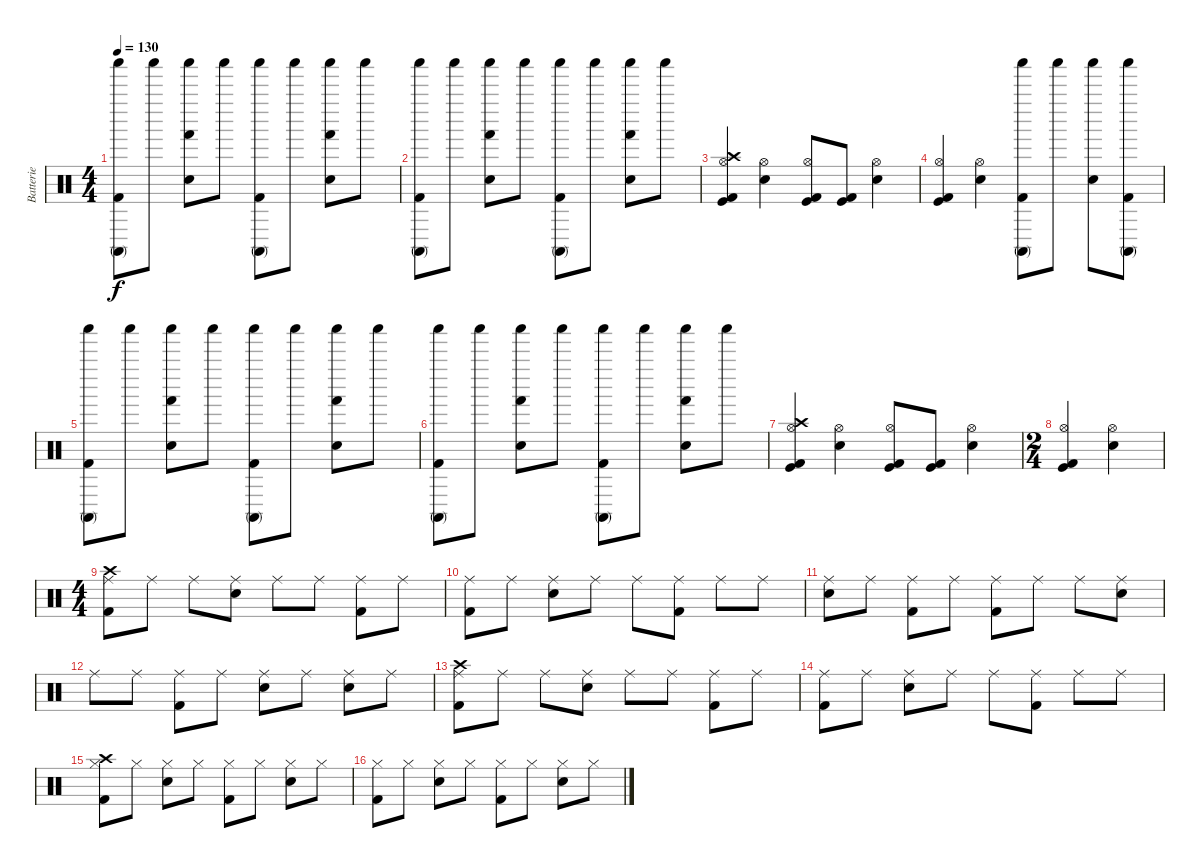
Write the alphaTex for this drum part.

\track ("Batterie" "Batterie") {instrument percussion}
\staff {score}
\articulation defaults
\ts (4 4)
\tempo 130
\clef neutral
\ks c
("Shaker (hit)" "Kick (hit) 2" "Conga high (mute)").8{dy f} "Shaker (hit)".8 ("Shaker (hit)" "Electric Snare (hit)" "Hand (hit)").8 "Shaker (hit)".8 ("Shaker (hit)" "Kick (hit) 2" "Conga high (mute)").8 "Shaker (hit)".8 ("Shaker (hit)" "Electric Snare (hit)" "Hand (hit)").8 "Shaker (hit)".8 |
("Shaker (hit)" "Kick (hit) 2" "Conga high (mute)").8 "Shaker (hit)".8 ("Shaker (hit)" "Electric Snare (hit)" "Hand (hit)").8 "Shaker (hit)".8 ("Shaker (hit)" "Kick (hit) 2" "Conga high (mute)").8 "Shaker (hit)".8 ("Shaker (hit)" "Electric Snare (hit)" "Hand (hit)").8 "Shaker (hit)".8 |
("Hi-Hat (open)" "Crash high (hit)" "Kick (hit) 2" "Kick (hit)").4 ("Hi-Hat (open)" "Electric Snare (hit)").4 ("Hi-Hat (open)" "Kick (hit)" "Kick (hit) 2").8 ("Kick (hit) 2" "Kick (hit)").8 ("Hi-Hat (open)" "Electric Snare (hit)").4 |
("Hi-Hat (open)" "Kick (hit) 2" "Kick (hit)").4 ("Hi-Hat (open)" "Electric Snare (hit)").4 ("Shaker (hit)" "Kick (hit) 2" "Conga high (mute)").8 "Shaker (hit)".8 ("Shaker (hit)" "Electric Snare (hit)").8 ("Shaker (hit)" "Kick (hit) 2" "Conga high (mute)").8 |
("Shaker (hit)" "Kick (hit) 2" "Conga high (mute)").8 "Shaker (hit)".8 ("Shaker (hit)" "Electric Snare (hit)" "Hand (hit)").8 "Shaker (hit)".8 ("Shaker (hit)" "Kick (hit) 2" "Conga high (mute)").8 "Shaker (hit)".8 ("Shaker (hit)" "Electric Snare (hit)" "Hand (hit)").8 "Shaker (hit)".8 |
("Shaker (hit)" "Kick (hit) 2" "Conga high (mute)").8 "Shaker (hit)".8 ("Shaker (hit)" "Electric Snare (hit)" "Hand (hit)").8 "Shaker (hit)".8 ("Shaker (hit)" "Kick (hit) 2" "Conga high (mute)").8 "Shaker (hit)".8 ("Shaker (hit)" "Electric Snare (hit)" "Hand (hit)").8 "Shaker (hit)".8 |
("Hi-Hat (open)" "Crash high (hit)" "Kick (hit) 2" "Kick (hit)").4 ("Hi-Hat (open)" "Electric Snare (hit)").4 ("Hi-Hat (open)" "Kick (hit)" "Kick (hit) 2").8 ("Kick (hit) 2" "Kick (hit)").8 ("Hi-Hat (open)" "Electric Snare (hit)").4 |
\ts (2 4)
("Hi-Hat (open)" "Kick (hit) 2" "Kick (hit)").4 ("Hi-Hat (open)" "Electric Snare (hit)").4 |
\ts (4 4)
("Ride (middle)" "Crash high (hit)" "Kick (hit) 2").8 "Ride (middle)".8 "Ride (middle)".8 ("Ride (middle)" "Electric Snare (hit)").8 "Ride (middle)".8 "Ride (middle)".8 ("Ride (middle)" "Kick (hit) 2").8 "Ride (middle)".8 |
("Ride (middle)" "Kick (hit) 2").8 "Ride (middle)".8 ("Ride (middle)" "Electric Snare (hit)").8 "Ride (middle)".8 "Ride (middle)".8 ("Ride (middle)" "Kick (hit) 2").8 "Ride (middle)".8 "Ride (middle)".8 |
("Ride (middle)" "Electric Snare (hit)").8 "Ride (middle)".8 ("Ride (middle)" "Kick (hit) 2").8 "Ride (middle)".8 ("Ride (middle)" "Kick (hit) 2").8 "Ride (middle)".8 "Ride (middle)".8 ("Ride (middle)" "Electric Snare (hit)").8 |
"Ride (middle)".8 "Ride (middle)".8 ("Ride (middle)" "Kick (hit) 2").8 "Ride (middle)".8 ("Ride (middle)" "Electric Snare (hit)").8 "Ride (middle)".8 ("Ride (middle)" "Electric Snare (hit)").8 "Ride (middle)".8 |
("Ride (middle)" "Crash high (hit)" "Kick (hit) 2").8 "Ride (middle)".8 "Ride (middle)".8 ("Ride (middle)" "Electric Snare (hit)").8 "Ride (middle)".8 "Ride (middle)".8 ("Ride (middle)" "Kick (hit) 2").8 "Ride (middle)".8 |
("Ride (middle)" "Kick (hit) 2").8 "Ride (middle)".8 ("Ride (middle)" "Electric Snare (hit)").8 "Ride (middle)".8 "Ride (middle)".8 ("Ride (middle)" "Kick (hit) 2").8 "Ride (middle)".8 "Ride (middle)".8 |
("Hi-Hat (closed)" "Kick (hit) 2" "Crash high (hit)").8 "Hi-Hat (closed)".8 ("Hi-Hat (closed)" "Electric Snare (hit)").8 "Hi-Hat (closed)".8 ("Hi-Hat (closed)" "Kick (hit) 2").8 "Hi-Hat (closed)".8 ("Hi-Hat (closed)" "Electric Snare (hit)").8 "Hi-Hat (closed)".8 |
("Hi-Hat (closed)" "Kick (hit) 2").8 "Hi-Hat (closed)".8 ("Hi-Hat (closed)" "Electric Snare (hit)").8 "Hi-Hat (closed)".8 ("Hi-Hat (closed)" "Kick (hit) 2").8 "Hi-Hat (closed)".8 ("Hi-Hat (closed)" "Electric Snare (hit)").8 "Hi-Hat (closed)".8
